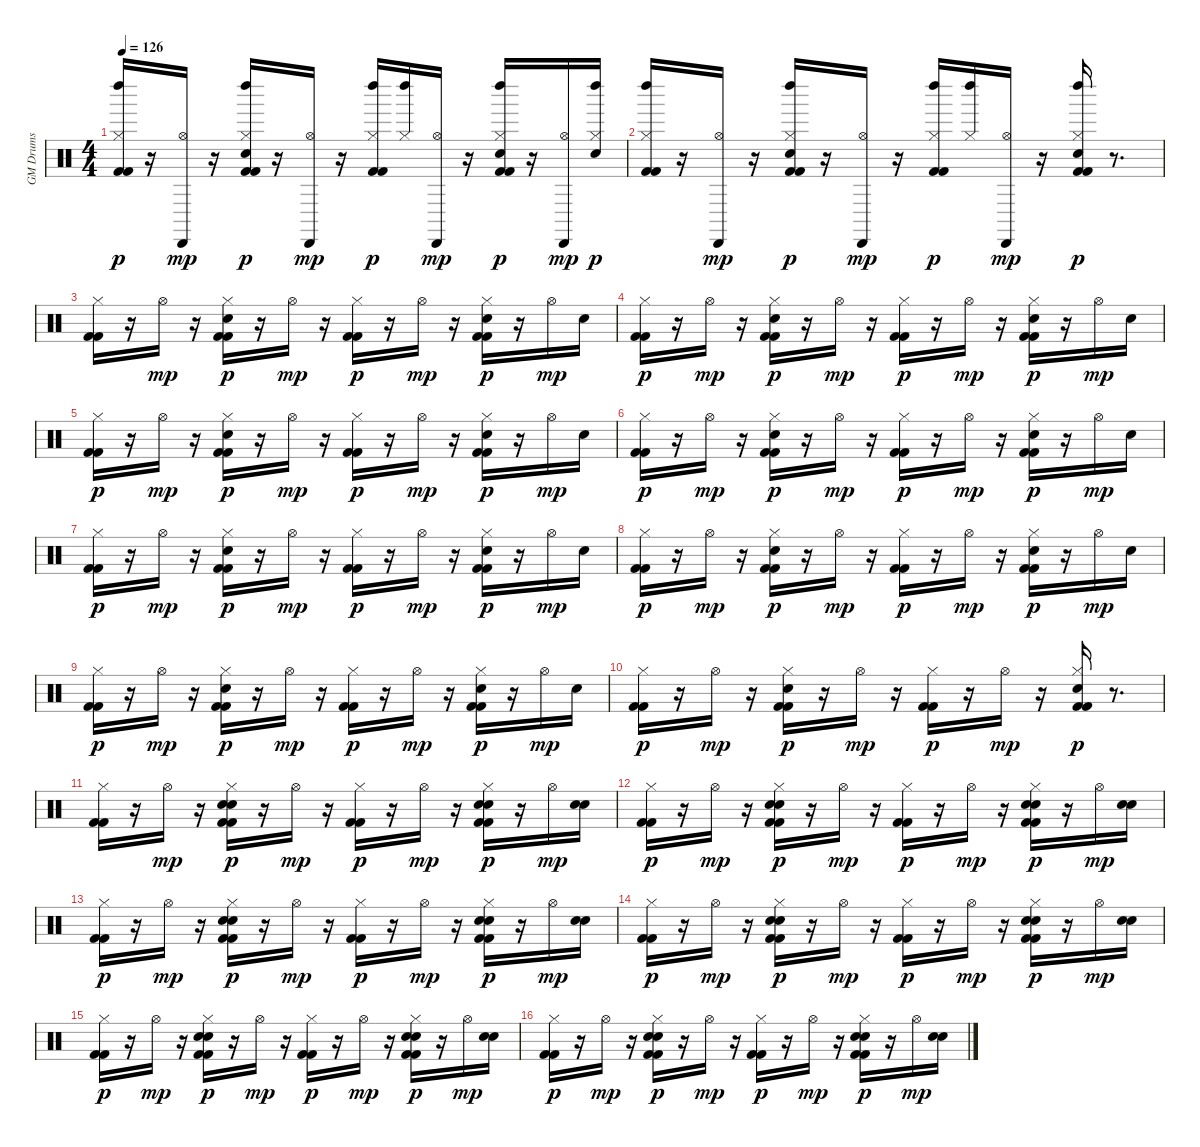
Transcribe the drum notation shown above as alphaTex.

\track ("GM Drums" "GM Drums") {instrument percussion}
\staff {score}
\articulation defaults
\ts (4 4)
\tempo 126
\clef neutral
\ks c
("Kick (hit) 2" "Kick (hit) 2" "Hi-Hat (closed)" "Left Maraca (hit)").16{dy p} r.16 ("Hi-Hat (open)" "Cabasa (hit)").16{dy mp} r.16 ("Kick (hit) 2" "Kick (hit) 2" "Electric Snare (hit)" "Hi-Hat (closed)" "Left Maraca (hit)").16{dy p} r.16 ("Hi-Hat (open)" "Cabasa (hit)").16{dy mp} r.16 ("Kick (hit) 2" "Kick (hit) 2" "Hi-Hat (closed)" "Left Maraca (hit)").16{dy p} ("Hi-Hat (closed)" "Left Maraca (hit)").16 ("Hi-Hat (open)" "Cabasa (hit)").16{dy mp} r.16 ("Kick (hit) 2" "Kick (hit) 2" "Electric Snare (hit)" "Hi-Hat (closed)" "Left Maraca (hit)").16{dy p} r.16 ("Hi-Hat (open)" "Cabasa (hit)").16{dy mp} ("Electric Snare (hit)" "Hi-Hat (closed)" "Left Maraca (hit)").16{dy p} |
("Kick (hit) 2" "Kick (hit) 2" "Hi-Hat (closed)" "Left Maraca (hit)").16 r.16 ("Hi-Hat (open)" "Cabasa (hit)").16{dy mp} r.16 ("Kick (hit) 2" "Kick (hit) 2" "Electric Snare (hit)" "Hi-Hat (closed)" "Left Maraca (hit)").16{dy p} r.16 ("Hi-Hat (open)" "Cabasa (hit)").16{dy mp} r.16 ("Kick (hit) 2" "Kick (hit) 2" "Hi-Hat (closed)" "Left Maraca (hit)").16{dy p} ("Hi-Hat (closed)" "Left Maraca (hit)").16 ("Hi-Hat (open)" "Cabasa (hit)").16{dy mp} r.16 ("Kick (hit) 2" "Kick (hit) 2" "Electric Snare (hit)" "Hi-Hat (closed)" "Left Maraca (hit)").16{dy p} r.8{d} |
("Kick (hit) 2" "Kick (hit) 2" "Hi-Hat (closed)").16 r.16 "Hi-Hat (open)".16{dy mp} r.16 ("Kick (hit) 2" "Kick (hit) 2" "Electric Snare (hit)" "Hi-Hat (closed)").16{dy p} r.16 "Hi-Hat (open)".16{dy mp} r.16 ("Kick (hit) 2" "Kick (hit) 2" "Hi-Hat (closed)").16{dy p} r.16 "Hi-Hat (open)".16{dy mp} r.16 ("Kick (hit) 2" "Kick (hit) 2" "Electric Snare (hit)" "Hi-Hat (closed)").16{dy p} r.16 "Hi-Hat (open)".16{dy mp} "Electric Snare (hit)".16 |
("Kick (hit) 2" "Kick (hit) 2" "Hi-Hat (closed)").16{dy p} r.16 "Hi-Hat (open)".16{dy mp} r.16 ("Kick (hit) 2" "Kick (hit) 2" "Electric Snare (hit)" "Hi-Hat (closed)").16{dy p} r.16 "Hi-Hat (open)".16{dy mp} r.16 ("Kick (hit) 2" "Kick (hit) 2" "Hi-Hat (closed)").16{dy p} r.16 "Hi-Hat (open)".16{dy mp} r.16 ("Kick (hit) 2" "Kick (hit) 2" "Electric Snare (hit)" "Hi-Hat (closed)").16{dy p} r.16 "Hi-Hat (open)".16{dy mp} "Electric Snare (hit)".16 |
("Kick (hit) 2" "Kick (hit) 2" "Hi-Hat (closed)").16{dy p} r.16 "Hi-Hat (open)".16{dy mp} r.16 ("Kick (hit) 2" "Kick (hit) 2" "Electric Snare (hit)" "Hi-Hat (closed)").16{dy p} r.16 "Hi-Hat (open)".16{dy mp} r.16 ("Kick (hit) 2" "Kick (hit) 2" "Hi-Hat (closed)").16{dy p} r.16 "Hi-Hat (open)".16{dy mp} r.16 ("Kick (hit) 2" "Kick (hit) 2" "Electric Snare (hit)" "Hi-Hat (closed)").16{dy p} r.16 "Hi-Hat (open)".16{dy mp} "Electric Snare (hit)".16 |
("Kick (hit) 2" "Kick (hit) 2" "Hi-Hat (closed)").16{dy p} r.16 "Hi-Hat (open)".16{dy mp} r.16 ("Kick (hit) 2" "Kick (hit) 2" "Electric Snare (hit)" "Hi-Hat (closed)").16{dy p} r.16 "Hi-Hat (open)".16{dy mp} r.16 ("Kick (hit) 2" "Kick (hit) 2" "Hi-Hat (closed)").16{dy p} r.16 "Hi-Hat (open)".16{dy mp} r.16 ("Kick (hit) 2" "Kick (hit) 2" "Electric Snare (hit)" "Hi-Hat (closed)").16{dy p} r.16 "Hi-Hat (open)".16{dy mp} "Electric Snare (hit)".16 |
("Kick (hit) 2" "Kick (hit) 2" "Hi-Hat (closed)").16{dy p} r.16 "Hi-Hat (open)".16{dy mp} r.16 ("Kick (hit) 2" "Kick (hit) 2" "Electric Snare (hit)" "Hi-Hat (closed)").16{dy p} r.16 "Hi-Hat (open)".16{dy mp} r.16 ("Kick (hit) 2" "Kick (hit) 2" "Hi-Hat (closed)").16{dy p} r.16 "Hi-Hat (open)".16{dy mp} r.16 ("Kick (hit) 2" "Kick (hit) 2" "Electric Snare (hit)" "Hi-Hat (closed)").16{dy p} r.16 "Hi-Hat (open)".16{dy mp} "Electric Snare (hit)".16 |
("Kick (hit) 2" "Kick (hit) 2" "Hi-Hat (closed)").16{dy p} r.16 "Hi-Hat (open)".16{dy mp} r.16 ("Kick (hit) 2" "Kick (hit) 2" "Electric Snare (hit)" "Hi-Hat (closed)").16{dy p} r.16 "Hi-Hat (open)".16{dy mp} r.16 ("Kick (hit) 2" "Kick (hit) 2" "Hi-Hat (closed)").16{dy p} r.16 "Hi-Hat (open)".16{dy mp} r.16 ("Kick (hit) 2" "Kick (hit) 2" "Electric Snare (hit)" "Hi-Hat (closed)").16{dy p} r.16 "Hi-Hat (open)".16{dy mp} "Electric Snare (hit)".16 |
("Kick (hit) 2" "Kick (hit) 2" "Hi-Hat (closed)").16{dy p} r.16 "Hi-Hat (open)".16{dy mp} r.16 ("Kick (hit) 2" "Kick (hit) 2" "Electric Snare (hit)" "Hi-Hat (closed)").16{dy p} r.16 "Hi-Hat (open)".16{dy mp} r.16 ("Kick (hit) 2" "Kick (hit) 2" "Hi-Hat (closed)").16{dy p} r.16 "Hi-Hat (open)".16{dy mp} r.16 ("Kick (hit) 2" "Kick (hit) 2" "Electric Snare (hit)" "Hi-Hat (closed)").16{dy p} r.16 "Hi-Hat (open)".16{dy mp} "Electric Snare (hit)".16 |
("Kick (hit) 2" "Kick (hit) 2" "Hi-Hat (closed)").16{dy p} r.16 "Hi-Hat (open)".16{dy mp} r.16 ("Kick (hit) 2" "Kick (hit) 2" "Electric Snare (hit)" "Hi-Hat (closed)").16{dy p} r.16 "Hi-Hat (open)".16{dy mp} r.16 ("Kick (hit) 2" "Kick (hit) 2" "Hi-Hat (closed)").16{dy p} r.16 "Hi-Hat (open)".16{dy mp} r.16 ("Kick (hit) 2" "Kick (hit) 2" "Electric Snare (hit)" "Hi-Hat (closed)").16{dy p} r.8{d} |
("Kick (hit) 2" "Kick (hit) 2" "Hi-Hat (closed)").16 r.16 "Hi-Hat (open)".16{dy mp} r.16 ("Kick (hit) 2" "Kick (hit) 2" "Hand Clap (hit)" "Electric Snare (hit)" "Hi-Hat (closed)").16{dy p} r.16 "Hi-Hat (open)".16{dy mp} r.16 ("Kick (hit) 2" "Kick (hit) 2" "Hi-Hat (closed)").16{dy p} r.16 "Hi-Hat (open)".16{dy mp} r.16 ("Kick (hit) 2" "Kick (hit) 2" "Hand Clap (hit)" "Electric Snare (hit)" "Hi-Hat (closed)").16{dy p} r.16 "Hi-Hat (open)".16{dy mp} ("Hand Clap (hit)" "Electric Snare (hit)").16 |
("Kick (hit) 2" "Kick (hit) 2" "Hi-Hat (closed)").16{dy p} r.16 "Hi-Hat (open)".16{dy mp} r.16 ("Kick (hit) 2" "Kick (hit) 2" "Hand Clap (hit)" "Electric Snare (hit)" "Hi-Hat (closed)").16{dy p} r.16 "Hi-Hat (open)".16{dy mp} r.16 ("Kick (hit) 2" "Kick (hit) 2" "Hi-Hat (closed)").16{dy p} r.16 "Hi-Hat (open)".16{dy mp} r.16 ("Kick (hit) 2" "Kick (hit) 2" "Hand Clap (hit)" "Electric Snare (hit)" "Hi-Hat (closed)").16{dy p} r.16 "Hi-Hat (open)".16{dy mp} ("Hand Clap (hit)" "Electric Snare (hit)").16 |
("Kick (hit) 2" "Kick (hit) 2" "Hi-Hat (closed)").16{dy p} r.16 "Hi-Hat (open)".16{dy mp} r.16 ("Kick (hit) 2" "Kick (hit) 2" "Hand Clap (hit)" "Electric Snare (hit)" "Hi-Hat (closed)").16{dy p} r.16 "Hi-Hat (open)".16{dy mp} r.16 ("Kick (hit) 2" "Kick (hit) 2" "Hi-Hat (closed)").16{dy p} r.16 "Hi-Hat (open)".16{dy mp} r.16 ("Kick (hit) 2" "Kick (hit) 2" "Hand Clap (hit)" "Electric Snare (hit)" "Hi-Hat (closed)").16{dy p} r.16 "Hi-Hat (open)".16{dy mp} ("Hand Clap (hit)" "Electric Snare (hit)").16 |
("Kick (hit) 2" "Kick (hit) 2" "Hi-Hat (closed)").16{dy p} r.16 "Hi-Hat (open)".16{dy mp} r.16 ("Kick (hit) 2" "Kick (hit) 2" "Hand Clap (hit)" "Electric Snare (hit)" "Hi-Hat (closed)").16{dy p} r.16 "Hi-Hat (open)".16{dy mp} r.16 ("Kick (hit) 2" "Kick (hit) 2" "Hi-Hat (closed)").16{dy p} r.16 "Hi-Hat (open)".16{dy mp} r.16 ("Kick (hit) 2" "Kick (hit) 2" "Hand Clap (hit)" "Electric Snare (hit)" "Hi-Hat (closed)").16{dy p} r.16 "Hi-Hat (open)".16{dy mp} ("Hand Clap (hit)" "Electric Snare (hit)").16 |
("Kick (hit) 2" "Kick (hit) 2" "Hi-Hat (closed)").16{dy p} r.16 "Hi-Hat (open)".16{dy mp} r.16 ("Kick (hit) 2" "Kick (hit) 2" "Hand Clap (hit)" "Electric Snare (hit)" "Hi-Hat (closed)").16{dy p} r.16 "Hi-Hat (open)".16{dy mp} r.16 ("Kick (hit) 2" "Kick (hit) 2" "Hi-Hat (closed)").16{dy p} r.16 "Hi-Hat (open)".16{dy mp} r.16 ("Kick (hit) 2" "Kick (hit) 2" "Hand Clap (hit)" "Electric Snare (hit)" "Hi-Hat (closed)").16{dy p} r.16 "Hi-Hat (open)".16{dy mp} ("Hand Clap (hit)" "Electric Snare (hit)").16 |
("Kick (hit) 2" "Kick (hit) 2" "Hi-Hat (closed)").16{dy p} r.16 "Hi-Hat (open)".16{dy mp} r.16 ("Kick (hit) 2" "Kick (hit) 2" "Hand Clap (hit)" "Electric Snare (hit)" "Hi-Hat (closed)").16{dy p} r.16 "Hi-Hat (open)".16{dy mp} r.16 ("Kick (hit) 2" "Kick (hit) 2" "Hi-Hat (closed)").16{dy p} r.16 "Hi-Hat (open)".16{dy mp} r.16 ("Kick (hit) 2" "Kick (hit) 2" "Hand Clap (hit)" "Electric Snare (hit)" "Hi-Hat (closed)").16{dy p} r.16 "Hi-Hat (open)".16{dy mp} ("Hand Clap (hit)" "Electric Snare (hit)").16
